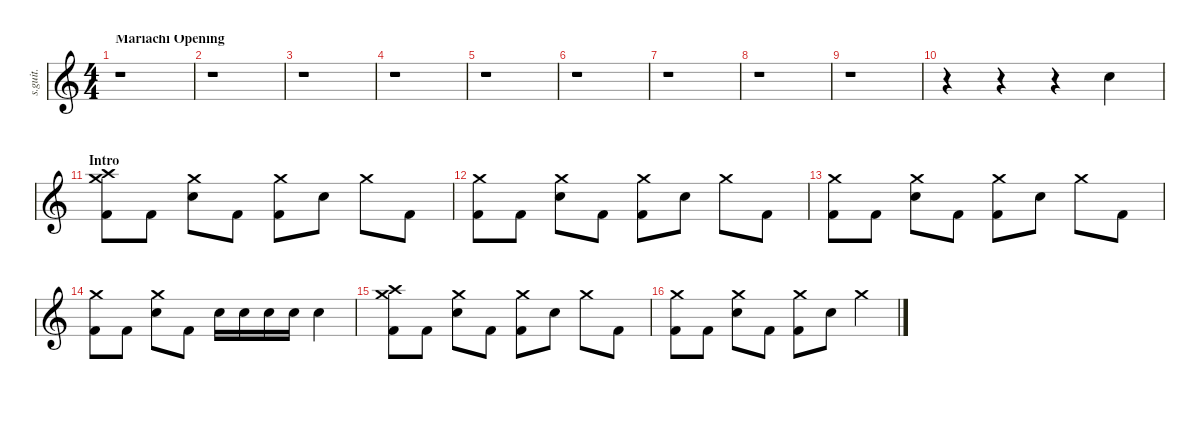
\defaultSystemsLayout 4
\hideDynamics
\bracketExtendMode nobrackets
\track ("Zac Farro | Drums" "s.guit.") {instrument percussion}
\staff {score}
\articulation defaults
\ts (4 4)
\beaming (8 2 2 2 2)
\section ("" "Mariachi Opening")
\tempo (173 hide)
\clef g2
\ks c
r.1{dy f} |
r.1 |
r.1 |
r.1 |
r.1 |
r.1 |
r.1 |
r.1 |
r.1 |
r.4 r.4 r.4 "Snare (hit) 2".4{lyrics (0 "") lyrics (1 "") lyrics (2 "") lyrics (3 "") lyrics (4 "")} |
\section ("" "Intro")
("Crash high (hit)" "Crash medium (hit)" "Kick (hit) 2").8{lyrics (0 "") lyrics (1 "") lyrics (2 "") lyrics (3 "") lyrics (4 "")} "Kick (hit) 2".8{lyrics (0 "") lyrics (1 "") lyrics (2 "") lyrics (3 "") lyrics (4 "")} ("Crash medium (hit)" "Electric Snare (hit)").8{lyrics (0 "") lyrics (1 "") lyrics (2 "") lyrics (3 "") lyrics (4 "")} "Kick (hit) 2".8{lyrics (0 "") lyrics (1 "") lyrics (2 "") lyrics (3 "") lyrics (4 "")} ("Crash medium (hit)" "Kick (hit) 2").8{lyrics (0 "") lyrics (1 "") lyrics (2 "") lyrics (3 "") lyrics (4 "")} "Electric Snare (hit)".8{lyrics (0 "") lyrics (1 "") lyrics (2 "") lyrics (3 "") lyrics (4 "")} "Crash medium (hit)".8{lyrics (0 "") lyrics (1 "") lyrics (2 "") lyrics (3 "") lyrics (4 "")} "Kick (hit) 2".8{lyrics (0 "") lyrics (1 "") lyrics (2 "") lyrics (3 "") lyrics (4 "")} |
("Crash medium (hit)" "Kick (hit) 2").8{lyrics (0 "") lyrics (1 "") lyrics (2 "") lyrics (3 "") lyrics (4 "")} "Kick (hit) 2".8{lyrics (0 "") lyrics (1 "") lyrics (2 "") lyrics (3 "") lyrics (4 "")} ("Crash medium (hit)" "Electric Snare (hit)").8{lyrics (0 "") lyrics (1 "") lyrics (2 "") lyrics (3 "") lyrics (4 "")} "Kick (hit) 2".8{lyrics (0 "") lyrics (1 "") lyrics (2 "") lyrics (3 "") lyrics (4 "")} ("Crash medium (hit)" "Kick (hit) 2").8{lyrics (0 "") lyrics (1 "") lyrics (2 "") lyrics (3 "") lyrics (4 "")} "Electric Snare (hit)".8{lyrics (0 "") lyrics (1 "") lyrics (2 "") lyrics (3 "") lyrics (4 "")} "Crash medium (hit)".8{lyrics (0 "") lyrics (1 "") lyrics (2 "") lyrics (3 "") lyrics (4 "")} "Kick (hit) 2".8{lyrics (0 "") lyrics (1 "") lyrics (2 "") lyrics (3 "") lyrics (4 "")} |
("Crash medium (hit)" "Kick (hit) 2").8{lyrics (0 "") lyrics (1 "") lyrics (2 "") lyrics (3 "") lyrics (4 "")} "Kick (hit) 2".8{lyrics (0 "") lyrics (1 "") lyrics (2 "") lyrics (3 "") lyrics (4 "")} ("Crash medium (hit)" "Electric Snare (hit)").8{lyrics (0 "") lyrics (1 "") lyrics (2 "") lyrics (3 "") lyrics (4 "")} "Kick (hit) 2".8{lyrics (0 "") lyrics (1 "") lyrics (2 "") lyrics (3 "") lyrics (4 "")} ("Crash medium (hit)" "Kick (hit) 2").8{lyrics (0 "") lyrics (1 "") lyrics (2 "") lyrics (3 "") lyrics (4 "")} "Electric Snare (hit)".8{lyrics (0 "") lyrics (1 "") lyrics (2 "") lyrics (3 "") lyrics (4 "")} "Crash medium (hit)".8{lyrics (0 "") lyrics (1 "") lyrics (2 "") lyrics (3 "") lyrics (4 "")} "Kick (hit) 2".8{lyrics (0 "") lyrics (1 "") lyrics (2 "") lyrics (3 "") lyrics (4 "")} |
("Crash medium (hit)" "Kick (hit) 2").8{lyrics (0 "") lyrics (1 "") lyrics (2 "") lyrics (3 "") lyrics (4 "")} "Kick (hit) 2".8{lyrics (0 "") lyrics (1 "") lyrics (2 "") lyrics (3 "") lyrics (4 "")} ("Crash medium (hit)" "Electric Snare (hit)").8{lyrics (0 "") lyrics (1 "") lyrics (2 "") lyrics (3 "") lyrics (4 "")} "Kick (hit) 2".8{lyrics (0 "") lyrics (1 "") lyrics (2 "") lyrics (3 "") lyrics (4 "")} "Electric Snare (hit)".16{lyrics (0 "") lyrics (1 "") lyrics (2 "") lyrics (3 "") lyrics (4 "")} "Electric Snare (hit)".16{lyrics (0 "") lyrics (1 "") lyrics (2 "") lyrics (3 "") lyrics (4 "")} "Electric Snare (hit)".16{lyrics (0 "") lyrics (1 "") lyrics (2 "") lyrics (3 "") lyrics (4 "")} "Electric Snare (hit)".16{lyrics (0 "") lyrics (1 "") lyrics (2 "") lyrics (3 "") lyrics (4 "")} "Electric Snare (hit)".4{lyrics (0 "") lyrics (1 "") lyrics (2 "") lyrics (3 "") lyrics (4 "")} |
("Crash high (hit)" "Crash medium (hit)" "Kick (hit) 2").8{lyrics (0 "") lyrics (1 "") lyrics (2 "") lyrics (3 "") lyrics (4 "")} "Kick (hit) 2".8{lyrics (0 "") lyrics (1 "") lyrics (2 "") lyrics (3 "") lyrics (4 "")} ("Crash medium (hit)" "Electric Snare (hit)").8{lyrics (0 "") lyrics (1 "") lyrics (2 "") lyrics (3 "") lyrics (4 "")} "Kick (hit) 2".8{lyrics (0 "") lyrics (1 "") lyrics (2 "") lyrics (3 "") lyrics (4 "")} ("Crash medium (hit)" "Kick (hit) 2").8{lyrics (0 "") lyrics (1 "") lyrics (2 "") lyrics (3 "") lyrics (4 "")} "Electric Snare (hit)".8{lyrics (0 "") lyrics (1 "") lyrics (2 "") lyrics (3 "") lyrics (4 "")} "Crash medium (hit)".8{lyrics (0 "") lyrics (1 "") lyrics (2 "") lyrics (3 "") lyrics (4 "")} "Kick (hit) 2".8{lyrics (0 "") lyrics (1 "") lyrics (2 "") lyrics (3 "") lyrics (4 "")} |
("Crash medium (hit)" "Kick (hit) 2").8{lyrics (0 "") lyrics (1 "") lyrics (2 "") lyrics (3 "") lyrics (4 "")} "Kick (hit) 2".8{lyrics (0 "") lyrics (1 "") lyrics (2 "") lyrics (3 "") lyrics (4 "")} ("Crash medium (hit)" "Electric Snare (hit)").8{lyrics (0 "") lyrics (1 "") lyrics (2 "") lyrics (3 "") lyrics (4 "")} "Kick (hit) 2".8{lyrics (0 "") lyrics (1 "") lyrics (2 "") lyrics (3 "") lyrics (4 "")} ("Crash medium (hit)" "Kick (hit) 2").8{lyrics (0 "") lyrics (1 "") lyrics (2 "") lyrics (3 "") lyrics (4 "")} "Electric Snare (hit)".8{lyrics (0 "") lyrics (1 "") lyrics (2 "") lyrics (3 "") lyrics (4 "")} "Crash medium (hit)".4{lyrics (0 "") lyrics (1 "") lyrics (2 "") lyrics (3 "") lyrics (4 "")}
